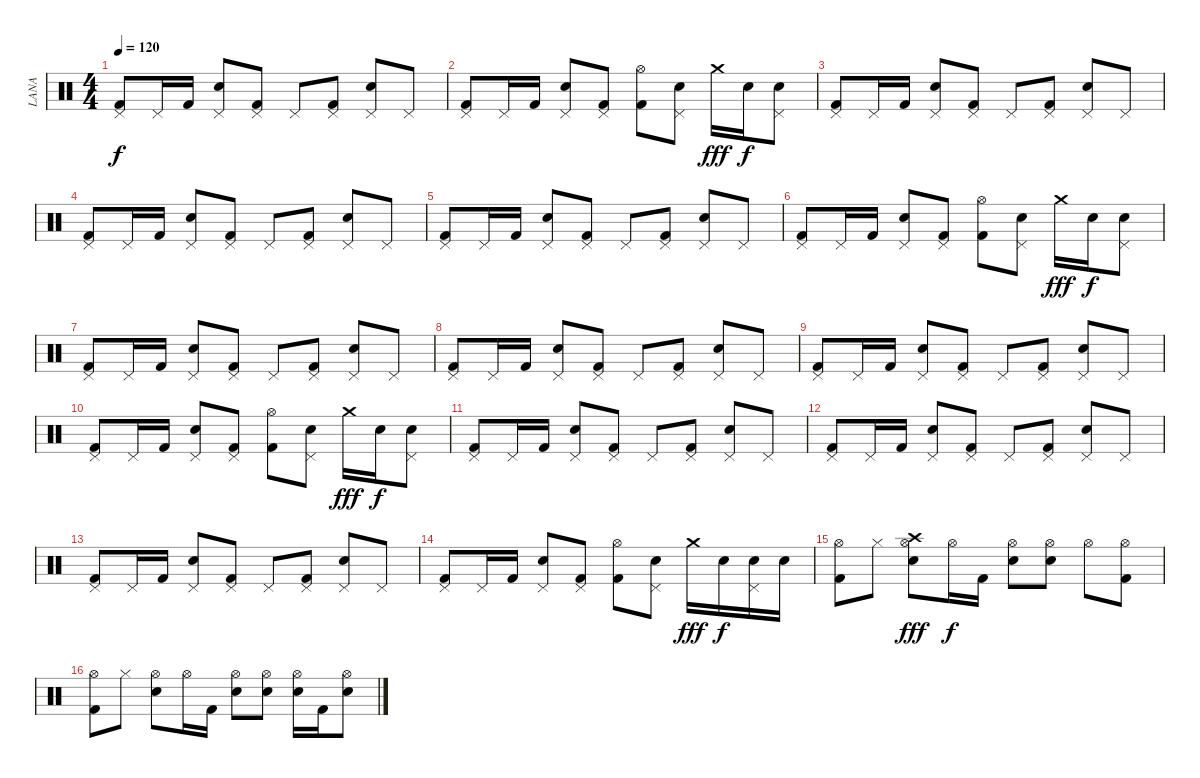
\track ("LANA" "LANA") {instrument percussion}
\staff {score}
\articulation defaults
\ts (4 4)
\tempo 120
\clef neutral
\ks c
("Pedal Hi-Hat (hit)" "Kick (hit) 2").8{dy f} "Pedal Hi-Hat (hit)".16 "Kick (hit) 2".16 ("Pedal Hi-Hat (hit)" "Electric Snare (hit)").8 ("Pedal Hi-Hat (hit)" "Kick (hit) 2").8 "Pedal Hi-Hat (hit)".8 ("Pedal Hi-Hat (hit)" "Kick (hit) 2").8 ("Pedal Hi-Hat (hit)" "Electric Snare (hit)").8 "Pedal Hi-Hat (hit)".8 |
("Pedal Hi-Hat (hit)" "Kick (hit) 2").8 "Pedal Hi-Hat (hit)".16 "Kick (hit) 2".16 ("Pedal Hi-Hat (hit)" "Electric Snare (hit)").8 ("Pedal Hi-Hat (hit)" "Kick (hit) 2").8 ("Hi-Hat (open)" "Kick (hit) 2").8 ("Pedal Hi-Hat (hit)" "Electric Snare (hit)").8 "Crash medium (hit)".16{dy fff} "Electric Snare (hit)".16{dy f} ("Pedal Hi-Hat (hit)" "Electric Snare (hit)").8 |
("Pedal Hi-Hat (hit)" "Kick (hit) 2").8 "Pedal Hi-Hat (hit)".16 "Kick (hit) 2".16 ("Pedal Hi-Hat (hit)" "Electric Snare (hit)").8 ("Pedal Hi-Hat (hit)" "Kick (hit) 2").8 "Pedal Hi-Hat (hit)".8 ("Pedal Hi-Hat (hit)" "Kick (hit) 2").8 ("Pedal Hi-Hat (hit)" "Electric Snare (hit)").8 "Pedal Hi-Hat (hit)".8 |
("Pedal Hi-Hat (hit)" "Kick (hit) 2").8 "Pedal Hi-Hat (hit)".16 "Kick (hit) 2".16 ("Pedal Hi-Hat (hit)" "Electric Snare (hit)").8 ("Pedal Hi-Hat (hit)" "Kick (hit) 2").8 "Pedal Hi-Hat (hit)".8 ("Pedal Hi-Hat (hit)" "Kick (hit) 2").8 ("Pedal Hi-Hat (hit)" "Electric Snare (hit)").8 "Pedal Hi-Hat (hit)".8 |
("Pedal Hi-Hat (hit)" "Kick (hit) 2").8 "Pedal Hi-Hat (hit)".16 "Kick (hit) 2".16 ("Pedal Hi-Hat (hit)" "Electric Snare (hit)").8 ("Pedal Hi-Hat (hit)" "Kick (hit) 2").8 "Pedal Hi-Hat (hit)".8 ("Pedal Hi-Hat (hit)" "Kick (hit) 2").8 ("Pedal Hi-Hat (hit)" "Electric Snare (hit)").8 "Pedal Hi-Hat (hit)".8 |
("Pedal Hi-Hat (hit)" "Kick (hit) 2").8 "Pedal Hi-Hat (hit)".16 "Kick (hit) 2".16 ("Pedal Hi-Hat (hit)" "Electric Snare (hit)").8 ("Pedal Hi-Hat (hit)" "Kick (hit) 2").8 ("Hi-Hat (open)" "Kick (hit) 2").8 ("Pedal Hi-Hat (hit)" "Electric Snare (hit)").8 "Crash medium (hit)".16{dy fff} "Electric Snare (hit)".16{dy f} ("Pedal Hi-Hat (hit)" "Electric Snare (hit)").8 |
("Pedal Hi-Hat (hit)" "Kick (hit) 2").8 "Pedal Hi-Hat (hit)".16 "Kick (hit) 2".16 ("Pedal Hi-Hat (hit)" "Electric Snare (hit)").8 ("Pedal Hi-Hat (hit)" "Kick (hit) 2").8 "Pedal Hi-Hat (hit)".8 ("Pedal Hi-Hat (hit)" "Kick (hit) 2").8 ("Pedal Hi-Hat (hit)" "Electric Snare (hit)").8 "Pedal Hi-Hat (hit)".8 |
("Pedal Hi-Hat (hit)" "Kick (hit) 2").8 "Pedal Hi-Hat (hit)".16 "Kick (hit) 2".16 ("Pedal Hi-Hat (hit)" "Electric Snare (hit)").8 ("Pedal Hi-Hat (hit)" "Kick (hit) 2").8 "Pedal Hi-Hat (hit)".8 ("Pedal Hi-Hat (hit)" "Kick (hit) 2").8 ("Pedal Hi-Hat (hit)" "Electric Snare (hit)").8 "Pedal Hi-Hat (hit)".8 |
("Pedal Hi-Hat (hit)" "Kick (hit) 2").8 "Pedal Hi-Hat (hit)".16 "Kick (hit) 2".16 ("Pedal Hi-Hat (hit)" "Electric Snare (hit)").8 ("Pedal Hi-Hat (hit)" "Kick (hit) 2").8 "Pedal Hi-Hat (hit)".8 ("Pedal Hi-Hat (hit)" "Kick (hit) 2").8 ("Pedal Hi-Hat (hit)" "Electric Snare (hit)").8 "Pedal Hi-Hat (hit)".8 |
("Pedal Hi-Hat (hit)" "Kick (hit) 2").8 "Pedal Hi-Hat (hit)".16 "Kick (hit) 2".16 ("Pedal Hi-Hat (hit)" "Electric Snare (hit)").8 ("Pedal Hi-Hat (hit)" "Kick (hit) 2").8 ("Hi-Hat (open)" "Kick (hit) 2").8 ("Pedal Hi-Hat (hit)" "Electric Snare (hit)").8 "Crash medium (hit)".16{dy fff} "Electric Snare (hit)".16{dy f} ("Pedal Hi-Hat (hit)" "Electric Snare (hit)").8 |
("Pedal Hi-Hat (hit)" "Kick (hit) 2").8 "Pedal Hi-Hat (hit)".16 "Kick (hit) 2".16 ("Pedal Hi-Hat (hit)" "Electric Snare (hit)").8 ("Pedal Hi-Hat (hit)" "Kick (hit) 2").8 "Pedal Hi-Hat (hit)".8 ("Pedal Hi-Hat (hit)" "Kick (hit) 2").8 ("Pedal Hi-Hat (hit)" "Electric Snare (hit)").8 "Pedal Hi-Hat (hit)".8 |
("Pedal Hi-Hat (hit)" "Kick (hit) 2").8 "Pedal Hi-Hat (hit)".16 "Kick (hit) 2".16 ("Pedal Hi-Hat (hit)" "Electric Snare (hit)").8 ("Pedal Hi-Hat (hit)" "Kick (hit) 2").8 "Pedal Hi-Hat (hit)".8 ("Pedal Hi-Hat (hit)" "Kick (hit) 2").8 ("Pedal Hi-Hat (hit)" "Electric Snare (hit)").8 "Pedal Hi-Hat (hit)".8 |
("Pedal Hi-Hat (hit)" "Kick (hit) 2").8 "Pedal Hi-Hat (hit)".16 "Kick (hit) 2".16 ("Pedal Hi-Hat (hit)" "Electric Snare (hit)").8 ("Pedal Hi-Hat (hit)" "Kick (hit) 2").8 "Pedal Hi-Hat (hit)".8 ("Pedal Hi-Hat (hit)" "Kick (hit) 2").8 ("Pedal Hi-Hat (hit)" "Electric Snare (hit)").8 "Pedal Hi-Hat (hit)".8 |
("Pedal Hi-Hat (hit)" "Kick (hit) 2").8 "Pedal Hi-Hat (hit)".16 "Kick (hit) 2".16 ("Pedal Hi-Hat (hit)" "Electric Snare (hit)").8 ("Pedal Hi-Hat (hit)" "Kick (hit) 2").8 ("Hi-Hat (open)" "Kick (hit) 2").8 ("Pedal Hi-Hat (hit)" "Electric Snare (hit)").8 "Crash medium (hit)".16{dy fff} "Electric Snare (hit)".16{dy f} ("Pedal Hi-Hat (hit)" "Electric Snare (hit)").16 "Electric Snare (hit)".16 |
("Hi-Hat (open)" "Kick (hit) 2").8 "Hi-Hat (closed)".8 ("Crash high (hit)" "Hi-Hat (open)" "Electric Snare (hit)").8{dy fff} "Hi-Hat (open)".16{dy f} "Kick (hit) 2".16 ("Hi-Hat (open)" "Electric Snare (hit)").8 ("Hi-Hat (open)" "Electric Snare (hit)").8 "Hi-Hat (open)".8 ("Hi-Hat (open)" "Kick (hit) 2").8 |
("Hi-Hat (open)" "Kick (hit) 2").8 "Hi-Hat (closed)".8 ("Hi-Hat (open)" "Electric Snare (hit)").8 "Hi-Hat (open)".16 "Kick (hit) 2".16 ("Hi-Hat (open)" "Electric Snare (hit)").8 ("Hi-Hat (open)" "Electric Snare (hit)").8 ("Hi-Hat (open)" "Electric Snare (hit)").16 "Kick (hit) 2".16 ("Hi-Hat (open)" "Electric Snare (hit)").8
